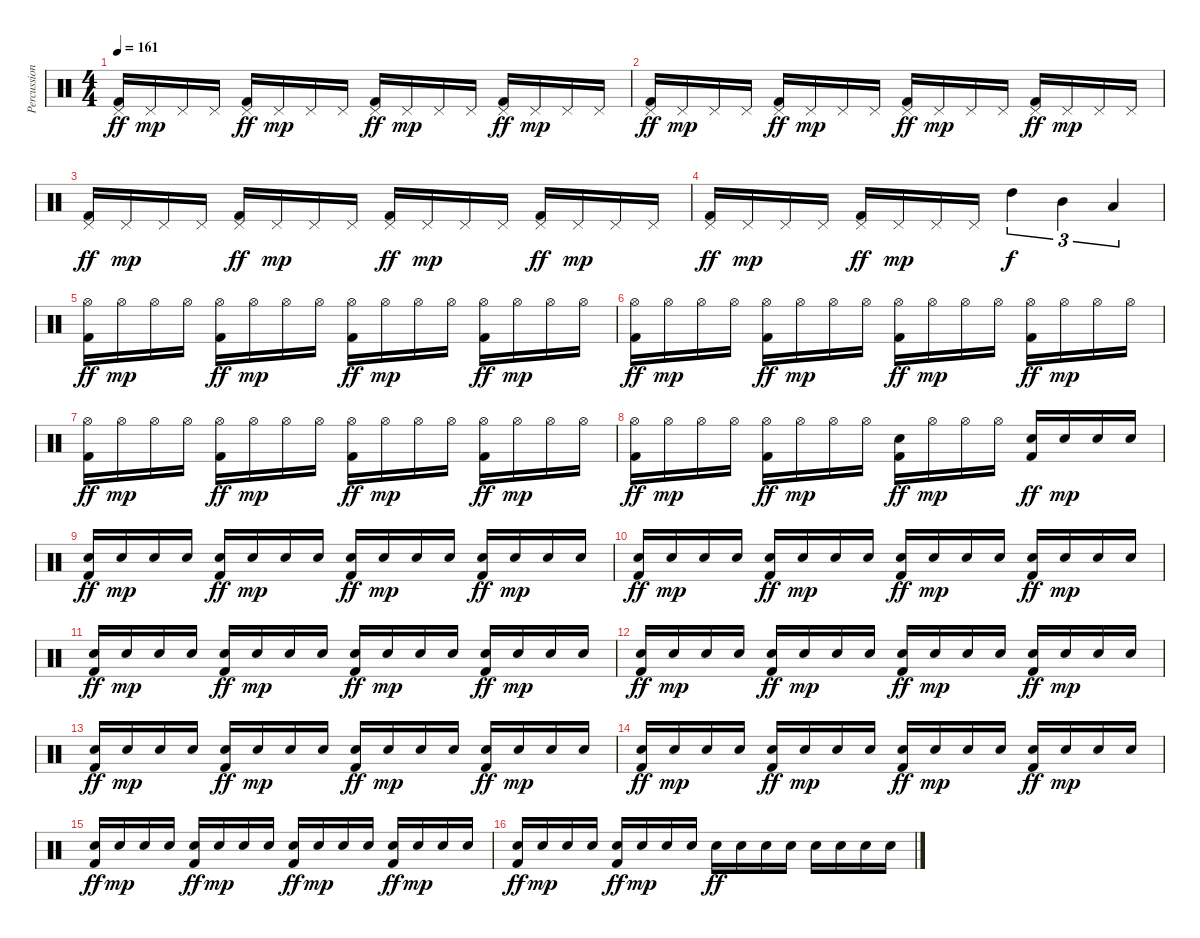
\track ("Percussions" "Percussion") {instrument percussion}
\staff {score}
\articulation defaults
\ts (4 4)
\tempo 161
\clef neutral
\ks c
("Kick (hit) 2" "Pedal Hi-Hat (hit)").16{dy ff} "Pedal Hi-Hat (hit)".16{dy mp} "Pedal Hi-Hat (hit)".16 "Pedal Hi-Hat (hit)".16 ("Kick (hit) 2" "Pedal Hi-Hat (hit)").16{dy ff} "Pedal Hi-Hat (hit)".16{dy mp} "Pedal Hi-Hat (hit)".16 "Pedal Hi-Hat (hit)".16 ("Kick (hit) 2" "Pedal Hi-Hat (hit)").16{dy ff} "Pedal Hi-Hat (hit)".16{dy mp} "Pedal Hi-Hat (hit)".16 "Pedal Hi-Hat (hit)".16 ("Kick (hit) 2" "Pedal Hi-Hat (hit)").16{dy ff} "Pedal Hi-Hat (hit)".16{dy mp} "Pedal Hi-Hat (hit)".16 "Pedal Hi-Hat (hit)".16 |
("Kick (hit) 2" "Pedal Hi-Hat (hit)").16{dy ff} "Pedal Hi-Hat (hit)".16{dy mp} "Pedal Hi-Hat (hit)".16 "Pedal Hi-Hat (hit)".16 ("Kick (hit) 2" "Pedal Hi-Hat (hit)").16{dy ff} "Pedal Hi-Hat (hit)".16{dy mp} "Pedal Hi-Hat (hit)".16 "Pedal Hi-Hat (hit)".16 ("Kick (hit) 2" "Pedal Hi-Hat (hit)").16{dy ff} "Pedal Hi-Hat (hit)".16{dy mp} "Pedal Hi-Hat (hit)".16 "Pedal Hi-Hat (hit)".16 ("Kick (hit) 2" "Pedal Hi-Hat (hit)").16{dy ff} "Pedal Hi-Hat (hit)".16{dy mp} "Pedal Hi-Hat (hit)".16 "Pedal Hi-Hat (hit)".16 |
("Kick (hit) 2" "Pedal Hi-Hat (hit)").16{dy ff} "Pedal Hi-Hat (hit)".16{dy mp} "Pedal Hi-Hat (hit)".16 "Pedal Hi-Hat (hit)".16 ("Kick (hit) 2" "Pedal Hi-Hat (hit)").16{dy ff} "Pedal Hi-Hat (hit)".16{dy mp} "Pedal Hi-Hat (hit)".16 "Pedal Hi-Hat (hit)".16 ("Kick (hit) 2" "Pedal Hi-Hat (hit)").16{dy ff} "Pedal Hi-Hat (hit)".16{dy mp} "Pedal Hi-Hat (hit)".16 "Pedal Hi-Hat (hit)".16 ("Kick (hit) 2" "Pedal Hi-Hat (hit)").16{dy ff} "Pedal Hi-Hat (hit)".16{dy mp} "Pedal Hi-Hat (hit)".16 "Pedal Hi-Hat (hit)".16 |
("Kick (hit) 2" "Pedal Hi-Hat (hit)").16{dy ff} "Pedal Hi-Hat (hit)".16{dy mp} "Pedal Hi-Hat (hit)".16 "Pedal Hi-Hat (hit)".16 ("Kick (hit) 2" "Pedal Hi-Hat (hit)").16{dy ff} "Pedal Hi-Hat (hit)".16{dy mp} "Pedal Hi-Hat (hit)".16 "Pedal Hi-Hat (hit)".16 "High Tom (hit)".4{tu (3 2) dy f} "Mid Tom (hit)".4{tu (3 2)} "Low Tom (hit)".4{tu (3 2)} |
("Kick (hit) 2" "Hi-Hat (open)").16{dy ff} "Hi-Hat (open)".16{dy mp} "Hi-Hat (open)".16 "Hi-Hat (open)".16 ("Kick (hit) 2" "Hi-Hat (open)").16{dy ff} "Hi-Hat (open)".16{dy mp} "Hi-Hat (open)".16 "Hi-Hat (open)".16 ("Kick (hit) 2" "Hi-Hat (open)").16{dy ff} "Hi-Hat (open)".16{dy mp} "Hi-Hat (open)".16 "Hi-Hat (open)".16 ("Kick (hit) 2" "Hi-Hat (open)").16{dy ff} "Hi-Hat (open)".16{dy mp} "Hi-Hat (open)".16 "Hi-Hat (open)".16 |
("Kick (hit) 2" "Hi-Hat (open)").16{dy ff} "Hi-Hat (open)".16{dy mp} "Hi-Hat (open)".16 "Hi-Hat (open)".16 ("Kick (hit) 2" "Hi-Hat (open)").16{dy ff} "Hi-Hat (open)".16{dy mp} "Hi-Hat (open)".16 "Hi-Hat (open)".16 ("Kick (hit) 2" "Hi-Hat (open)").16{dy ff} "Hi-Hat (open)".16{dy mp} "Hi-Hat (open)".16 "Hi-Hat (open)".16 ("Kick (hit) 2" "Hi-Hat (open)").16{dy ff} "Hi-Hat (open)".16{dy mp} "Hi-Hat (open)".16 "Hi-Hat (open)".16 |
("Kick (hit) 2" "Hi-Hat (open)").16{dy ff} "Hi-Hat (open)".16{dy mp} "Hi-Hat (open)".16 "Hi-Hat (open)".16 ("Kick (hit) 2" "Hi-Hat (open)").16{dy ff} "Hi-Hat (open)".16{dy mp} "Hi-Hat (open)".16 "Hi-Hat (open)".16 ("Kick (hit) 2" "Hi-Hat (open)").16{dy ff} "Hi-Hat (open)".16{dy mp} "Hi-Hat (open)".16 "Hi-Hat (open)".16 ("Kick (hit) 2" "Hi-Hat (open)").16{dy ff} "Hi-Hat (open)".16{dy mp} "Hi-Hat (open)".16 "Hi-Hat (open)".16 |
("Kick (hit) 2" "Hi-Hat (open)").16{dy ff} "Hi-Hat (open)".16{dy mp} "Hi-Hat (open)".16 "Hi-Hat (open)".16 ("Kick (hit) 2" "Hi-Hat (open)").16{dy ff} "Hi-Hat (open)".16{dy mp} "Hi-Hat (open)".16 "Hi-Hat (open)".16 ("Kick (hit) 2" "Electric Snare (hit)").16{dy ff} "Hi-Hat (open)".16{dy mp} "Hi-Hat (open)".16 "Hi-Hat (open)".16 ("Kick (hit) 2" "Electric Snare (hit)").16{dy ff} "Electric Snare (hit)".16{dy mp} "Electric Snare (hit)".16 "Electric Snare (hit)".16 |
("Kick (hit) 2" "Electric Snare (hit)").16{dy ff} "Electric Snare (hit)".16{dy mp} "Electric Snare (hit)".16 "Electric Snare (hit)".16 ("Kick (hit) 2" "Electric Snare (hit)").16{dy ff} "Electric Snare (hit)".16{dy mp} "Electric Snare (hit)".16 "Electric Snare (hit)".16 ("Kick (hit) 2" "Electric Snare (hit)").16{dy ff} "Electric Snare (hit)".16{dy mp} "Electric Snare (hit)".16 "Electric Snare (hit)".16 ("Kick (hit) 2" "Electric Snare (hit)").16{dy ff} "Electric Snare (hit)".16{dy mp} "Electric Snare (hit)".16 "Electric Snare (hit)".16 |
("Kick (hit) 2" "Electric Snare (hit)").16{dy ff} "Electric Snare (hit)".16{dy mp} "Electric Snare (hit)".16 "Electric Snare (hit)".16 ("Kick (hit) 2" "Electric Snare (hit)").16{dy ff} "Electric Snare (hit)".16{dy mp} "Electric Snare (hit)".16 "Electric Snare (hit)".16 ("Kick (hit) 2" "Electric Snare (hit)").16{dy ff} "Electric Snare (hit)".16{dy mp} "Electric Snare (hit)".16 "Electric Snare (hit)".16 ("Kick (hit) 2" "Electric Snare (hit)").16{dy ff} "Electric Snare (hit)".16{dy mp} "Electric Snare (hit)".16 "Electric Snare (hit)".16 |
("Kick (hit) 2" "Electric Snare (hit)").16{dy ff} "Electric Snare (hit)".16{dy mp} "Electric Snare (hit)".16 "Electric Snare (hit)".16 ("Kick (hit) 2" "Electric Snare (hit)").16{dy ff} "Electric Snare (hit)".16{dy mp} "Electric Snare (hit)".16 "Electric Snare (hit)".16 ("Kick (hit) 2" "Electric Snare (hit)").16{dy ff} "Electric Snare (hit)".16{dy mp} "Electric Snare (hit)".16 "Electric Snare (hit)".16 ("Kick (hit) 2" "Electric Snare (hit)").16{dy ff} "Electric Snare (hit)".16{dy mp} "Electric Snare (hit)".16 "Electric Snare (hit)".16 |
("Kick (hit) 2" "Electric Snare (hit)").16{dy ff} "Electric Snare (hit)".16{dy mp} "Electric Snare (hit)".16 "Electric Snare (hit)".16 ("Kick (hit) 2" "Electric Snare (hit)").16{dy ff} "Electric Snare (hit)".16{dy mp} "Electric Snare (hit)".16 "Electric Snare (hit)".16 ("Kick (hit) 2" "Electric Snare (hit)").16{dy ff} "Electric Snare (hit)".16{dy mp} "Electric Snare (hit)".16 "Electric Snare (hit)".16 ("Kick (hit) 2" "Electric Snare (hit)").16{dy ff} "Electric Snare (hit)".16{dy mp} "Electric Snare (hit)".16 "Electric Snare (hit)".16 |
("Kick (hit) 2" "Electric Snare (hit)").16{dy ff} "Electric Snare (hit)".16{dy mp} "Electric Snare (hit)".16 "Electric Snare (hit)".16 ("Kick (hit) 2" "Electric Snare (hit)").16{dy ff} "Electric Snare (hit)".16{dy mp} "Electric Snare (hit)".16 "Electric Snare (hit)".16 ("Kick (hit) 2" "Electric Snare (hit)").16{dy ff} "Electric Snare (hit)".16{dy mp} "Electric Snare (hit)".16 "Electric Snare (hit)".16 ("Kick (hit) 2" "Electric Snare (hit)").16{dy ff} "Electric Snare (hit)".16{dy mp} "Electric Snare (hit)".16 "Electric Snare (hit)".16 |
("Kick (hit) 2" "Electric Snare (hit)").16{dy ff} "Electric Snare (hit)".16{dy mp} "Electric Snare (hit)".16 "Electric Snare (hit)".16 ("Kick (hit) 2" "Electric Snare (hit)").16{dy ff} "Electric Snare (hit)".16{dy mp} "Electric Snare (hit)".16 "Electric Snare (hit)".16 ("Kick (hit) 2" "Electric Snare (hit)").16{dy ff} "Electric Snare (hit)".16{dy mp} "Electric Snare (hit)".16 "Electric Snare (hit)".16 ("Kick (hit) 2" "Electric Snare (hit)").16{dy ff} "Electric Snare (hit)".16{dy mp} "Electric Snare (hit)".16 "Electric Snare (hit)".16 |
("Kick (hit) 2" "Electric Snare (hit)").16{dy ff} "Electric Snare (hit)".16{dy mp} "Electric Snare (hit)".16 "Electric Snare (hit)".16 ("Kick (hit) 2" "Electric Snare (hit)").16{dy ff} "Electric Snare (hit)".16{dy mp} "Electric Snare (hit)".16 "Electric Snare (hit)".16 ("Kick (hit) 2" "Electric Snare (hit)").16{dy ff} "Electric Snare (hit)".16{dy mp} "Electric Snare (hit)".16 "Electric Snare (hit)".16 ("Kick (hit) 2" "Electric Snare (hit)").16{dy ff} "Electric Snare (hit)".16{dy mp} "Electric Snare (hit)".16 "Electric Snare (hit)".16 |
("Kick (hit) 2" "Electric Snare (hit)").16{dy ff} "Electric Snare (hit)".16{dy mp} "Electric Snare (hit)".16 "Electric Snare (hit)".16 ("Kick (hit) 2" "Electric Snare (hit)").16{dy ff} "Electric Snare (hit)".16{dy mp} "Electric Snare (hit)".16 "Electric Snare (hit)".16 "Electric Snare (hit)".16{dy ff} "Electric Snare (hit)".16 "Electric Snare (hit)".16 "Electric Snare (hit)".16 "Electric Snare (hit)".16 "Electric Snare (hit)".16 "Electric Snare (hit)".16 "Electric Snare (hit)".16
